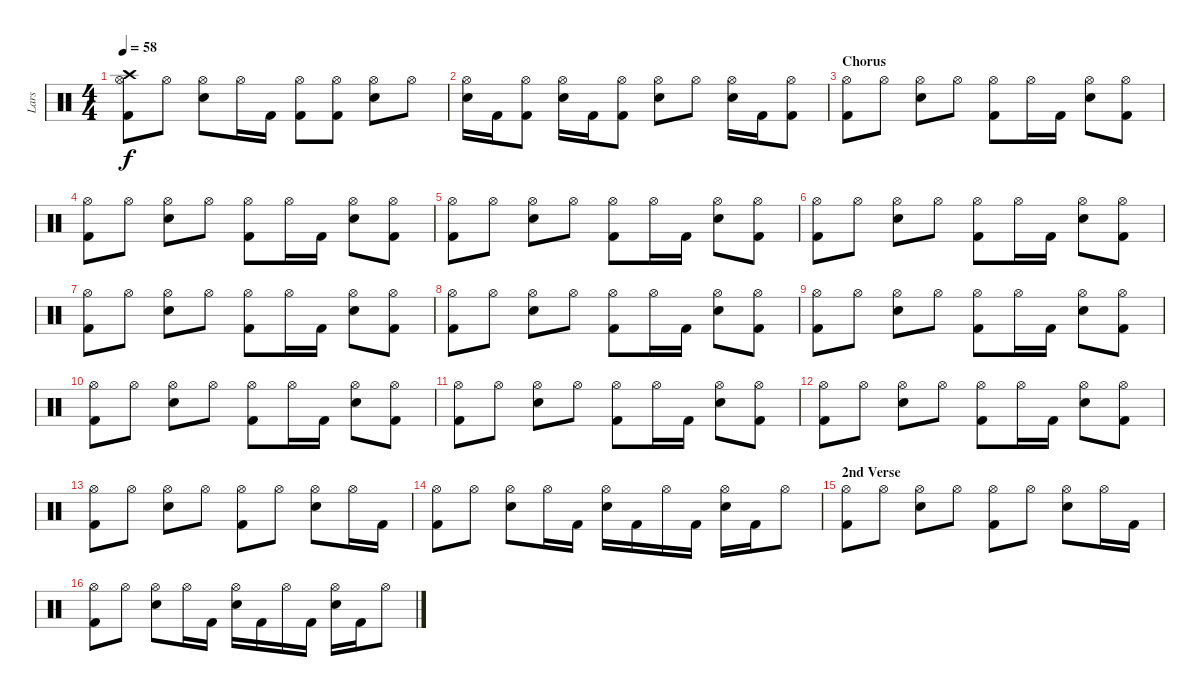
\track ("Lars " "Lars ") {instrument percussion}
\staff {score}
\articulation defaults
\ts (4 4)
\tempo 58
\clef neutral
\ks c
("Kick (hit) 2" "Hi-Hat (open)" "Crash high (hit)").8{dy f} "Hi-Hat (open)".8 ("Snare (hit) 2" "Hi-Hat (open)").8 "Hi-Hat (open)".16 "Kick (hit) 2".16 ("Kick (hit) 2" "Hi-Hat (open)").8 ("Kick (hit) 2" "Hi-Hat (open)").8 ("Snare (hit) 2" "Hi-Hat (open)").8 "Hi-Hat (open)".8 |
("Snare (hit) 2" "Hi-Hat (open)").16 "Kick (hit) 2".16 ("Kick (hit) 2" "Hi-Hat (open)").8 ("Snare (hit) 2" "Hi-Hat (open)").16 "Kick (hit) 2".16 ("Kick (hit) 2" "Hi-Hat (open)").8 ("Snare (hit) 2" "Hi-Hat (open)").8 "Hi-Hat (open)".8 ("Snare (hit) 2" "Hi-Hat (open)").16 "Kick (hit) 2".16 ("Kick (hit) 2" "Hi-Hat (open)").8 |
\section ("" "Chorus")
("Kick (hit) 2" "Hi-Hat (open)").8 "Hi-Hat (open)".8 ("Snare (hit) 2" "Hi-Hat (open)").8 "Hi-Hat (open)".8 ("Kick (hit) 2" "Hi-Hat (open)").8 "Hi-Hat (open)".16 "Kick (hit) 2".16 ("Snare (hit) 2" "Hi-Hat (open)").8 ("Kick (hit) 2" "Hi-Hat (open)").8 |
("Kick (hit) 2" "Hi-Hat (open)").8 "Hi-Hat (open)".8 ("Snare (hit) 2" "Hi-Hat (open)").8 "Hi-Hat (open)".8 ("Kick (hit) 2" "Hi-Hat (open)").8 "Hi-Hat (open)".16 "Kick (hit) 2".16 ("Snare (hit) 2" "Hi-Hat (open)").8 ("Kick (hit) 2" "Hi-Hat (open)").8 |
("Kick (hit) 2" "Hi-Hat (open)").8 "Hi-Hat (open)".8 ("Snare (hit) 2" "Hi-Hat (open)").8 "Hi-Hat (open)".8 ("Kick (hit) 2" "Hi-Hat (open)").8 "Hi-Hat (open)".16 "Kick (hit) 2".16 ("Snare (hit) 2" "Hi-Hat (open)").8 ("Kick (hit) 2" "Hi-Hat (open)").8 |
("Kick (hit) 2" "Hi-Hat (open)").8 "Hi-Hat (open)".8 ("Snare (hit) 2" "Hi-Hat (open)").8 "Hi-Hat (open)".8 ("Kick (hit) 2" "Hi-Hat (open)").8 "Hi-Hat (open)".16 "Kick (hit) 2".16 ("Snare (hit) 2" "Hi-Hat (open)").8 ("Kick (hit) 2" "Hi-Hat (open)").8 |
("Kick (hit) 2" "Hi-Hat (open)").8 "Hi-Hat (open)".8 ("Snare (hit) 2" "Hi-Hat (open)").8 "Hi-Hat (open)".8 ("Kick (hit) 2" "Hi-Hat (open)").8 "Hi-Hat (open)".16 "Kick (hit) 2".16 ("Snare (hit) 2" "Hi-Hat (open)").8 ("Kick (hit) 2" "Hi-Hat (open)").8 |
("Kick (hit) 2" "Hi-Hat (open)").8 "Hi-Hat (open)".8 ("Snare (hit) 2" "Hi-Hat (open)").8 "Hi-Hat (open)".8 ("Kick (hit) 2" "Hi-Hat (open)").8 "Hi-Hat (open)".16 "Kick (hit) 2".16 ("Snare (hit) 2" "Hi-Hat (open)").8 ("Kick (hit) 2" "Hi-Hat (open)").8 |
("Kick (hit) 2" "Hi-Hat (open)").8 "Hi-Hat (open)".8 ("Snare (hit) 2" "Hi-Hat (open)").8 "Hi-Hat (open)".8 ("Kick (hit) 2" "Hi-Hat (open)").8 "Hi-Hat (open)".16 "Kick (hit) 2".16 ("Snare (hit) 2" "Hi-Hat (open)").8 ("Kick (hit) 2" "Hi-Hat (open)").8 |
("Kick (hit) 2" "Hi-Hat (open)").8 "Hi-Hat (open)".8 ("Snare (hit) 2" "Hi-Hat (open)").8 "Hi-Hat (open)".8 ("Kick (hit) 2" "Hi-Hat (open)").8 "Hi-Hat (open)".16 "Kick (hit) 2".16 ("Snare (hit) 2" "Hi-Hat (open)").8 ("Kick (hit) 2" "Hi-Hat (open)").8 |
("Kick (hit) 2" "Hi-Hat (open)").8 "Hi-Hat (open)".8 ("Snare (hit) 2" "Hi-Hat (open)").8 "Hi-Hat (open)".8 ("Kick (hit) 2" "Hi-Hat (open)").8 "Hi-Hat (open)".16 "Kick (hit) 2".16 ("Snare (hit) 2" "Hi-Hat (open)").8 ("Kick (hit) 2" "Hi-Hat (open)").8 |
("Kick (hit) 2" "Hi-Hat (open)").8 "Hi-Hat (open)".8 ("Snare (hit) 2" "Hi-Hat (open)").8 "Hi-Hat (open)".8 ("Kick (hit) 2" "Hi-Hat (open)").8 "Hi-Hat (open)".16 "Kick (hit) 2".16 ("Snare (hit) 2" "Hi-Hat (open)").8 ("Kick (hit) 2" "Hi-Hat (open)").8 |
("Kick (hit) 2" "Hi-Hat (open)").8 "Hi-Hat (open)".8 ("Snare (hit) 2" "Hi-Hat (open)").8 "Hi-Hat (open)".8 ("Kick (hit) 2" "Hi-Hat (open)").8 "Hi-Hat (open)".8 ("Snare (hit) 2" "Hi-Hat (open)").8 "Hi-Hat (open)".16 "Kick (hit) 2".16 |
("Kick (hit) 2" "Hi-Hat (open)").8 "Hi-Hat (open)".8 ("Snare (hit) 2" "Hi-Hat (open)").8 "Hi-Hat (open)".16 "Kick (hit) 2".16 ("Snare (hit) 2" "Hi-Hat (open)").16 "Kick (hit) 2".16 "Hi-Hat (open)".16 "Kick (hit) 2".16 ("Snare (hit) 2" "Hi-Hat (open)").16 "Kick (hit) 2".16 "Hi-Hat (open)".8 |
\section ("" "2nd Verse")
("Kick (hit) 2" "Hi-Hat (open)").8 "Hi-Hat (open)".8 ("Snare (hit) 2" "Hi-Hat (open)").8 "Hi-Hat (open)".8 ("Kick (hit) 2" "Hi-Hat (open)").8 "Hi-Hat (open)".8 ("Snare (hit) 2" "Hi-Hat (open)").8 "Hi-Hat (open)".16 "Kick (hit) 2".16 |
("Kick (hit) 2" "Hi-Hat (open)").8 "Hi-Hat (open)".8 ("Snare (hit) 2" "Hi-Hat (open)").8 "Hi-Hat (open)".16 "Kick (hit) 2".16 ("Snare (hit) 2" "Hi-Hat (open)").16 "Kick (hit) 2".16 "Hi-Hat (open)".16 "Kick (hit) 2".16 ("Snare (hit) 2" "Hi-Hat (open)").16 "Kick (hit) 2".16 "Hi-Hat (open)".8
